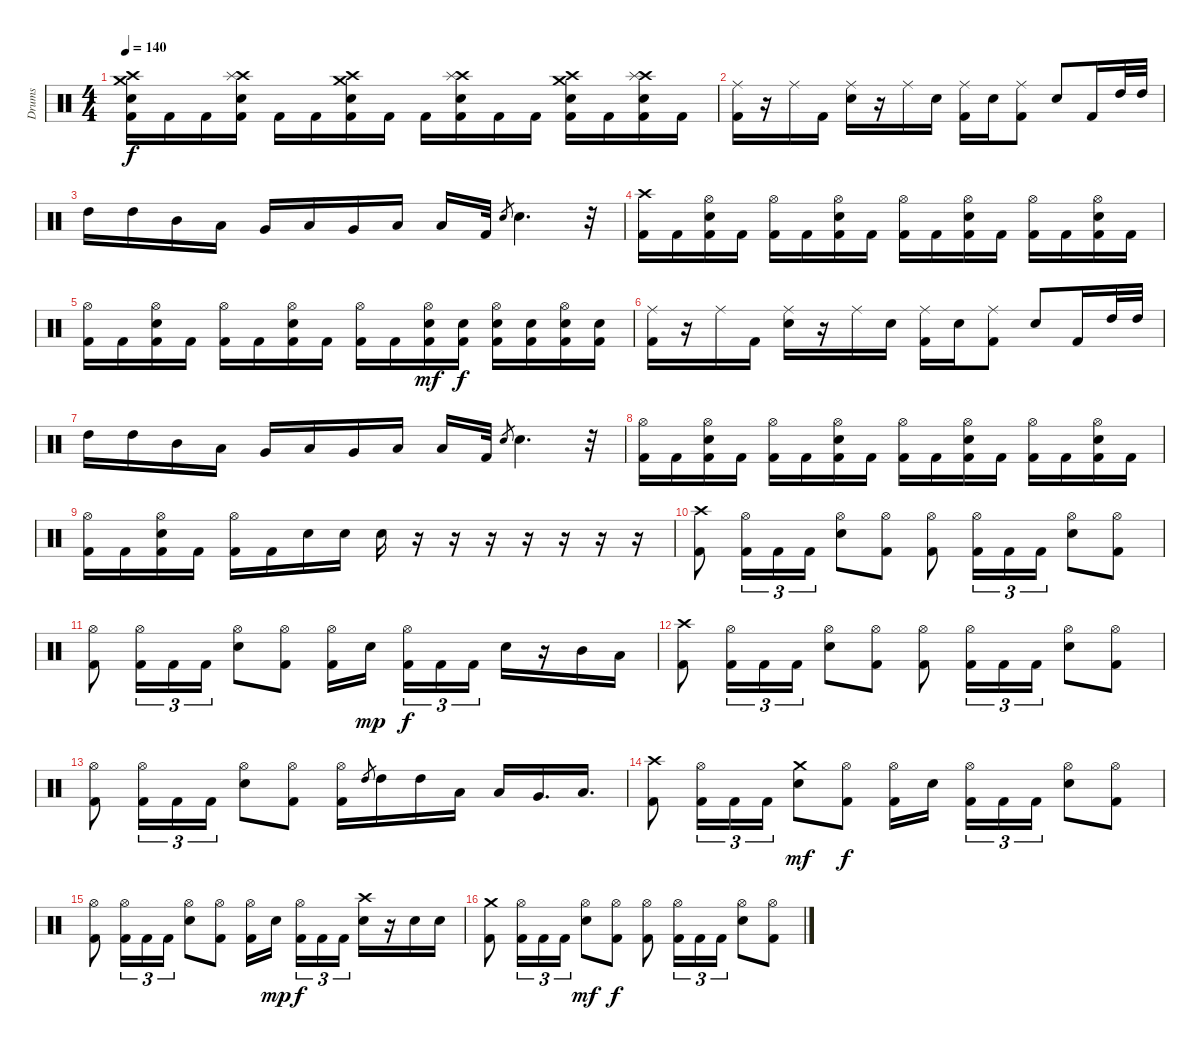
\track ("Drums" "Drums") {instrument percussion}
\staff {score}
\articulation defaults
\ts (4 4)
\tempo 140
\clef neutral
\ks c
("Crash high (hit)" "Crash medium (hit)" "Electric Snare (hit)" "Kick (hit) 2").16{dy f} "Kick (hit) 2".16 "Kick (hit) 2".16 ("Crash high (hit)" "Splash (hit)" "Electric Snare (hit)" "Kick (hit) 2").16 "Kick (hit) 2".16 "Kick (hit) 2".16 ("Crash high (hit)" "Crash medium (hit)" "Electric Snare (hit)" "Kick (hit) 2").16 "Kick (hit) 2".16 "Kick (hit) 2".16 ("Crash high (hit)" "Splash (hit)" "Electric Snare (hit)" "Kick (hit) 2").16 "Kick (hit) 2".16 "Kick (hit) 2".16 ("Crash high (hit)" "Crash medium (hit)" "Electric Snare (hit)" "Kick (hit) 2").16 "Kick (hit) 2".16 ("Crash high (hit)" "Splash (hit)" "Electric Snare (hit)" "Kick (hit) 2").16 "Kick (hit) 2".16 |
("Ride (middle)" "Kick (hit) 2").16 r.16 "Ride (middle)".16 "Kick (hit) 2".16 ("Ride (middle)" "Electric Snare (hit)").16 r.16 "Ride (middle)".16 "Electric Snare (hit)".16 ("Ride (middle)" "Kick (hit) 2").16 "Electric Snare (hit)".16 ("Ride (middle)" "Kick (hit) 2").8 "Electric Snare (hit)".8 "Kick (hit) 2".16 "High Tom (hit)".32 "High Tom (hit)".32 |
"High Tom (hit)".16 "High Tom (hit)".16 "Mid Tom (hit)".16 "Low Tom (hit)".16 "Very Low Tom (hit)".16 "Low Tom (hit)".16 "Very Low Tom (hit)".16 "Low Floor Tom (hit)".16 "Low Floor Tom (hit)".16 "Kick (hit) 2".32 "Electric Snare (hit)".8{gr} "Electric Snare (hit)".4{d} r.32 |
("Crash high (hit)" "Kick (hit) 2").16 "Kick (hit) 2".16 ("Hi-Hat (open)" "Electric Snare (hit)" "Kick (hit) 2").16 "Kick (hit) 2".16 ("Hi-Hat (open)" "Kick (hit) 2").16 "Kick (hit) 2".16 ("Hi-Hat (open)" "Electric Snare (hit)" "Kick (hit) 2").16 "Kick (hit) 2".16 ("Hi-Hat (open)" "Kick (hit) 2").16 "Kick (hit) 2".16 ("Hi-Hat (open)" "Electric Snare (hit)" "Kick (hit) 2").16 "Kick (hit) 2".16 ("Hi-Hat (open)" "Kick (hit) 2").16 "Kick (hit) 2".16 ("Hi-Hat (open)" "Electric Snare (hit)" "Kick (hit) 2").16 "Kick (hit) 2".16 |
("Hi-Hat (open)" "Kick (hit) 2").16 "Kick (hit) 2".16 ("Hi-Hat (open)" "Electric Snare (hit)" "Kick (hit) 2").16 "Kick (hit) 2".16 ("Hi-Hat (open)" "Kick (hit) 2").16 "Kick (hit) 2".16 ("Hi-Hat (open)" "Electric Snare (hit)" "Kick (hit) 2").16 "Kick (hit) 2".16 ("Hi-Hat (open)" "Kick (hit) 2").16 "Kick (hit) 2".16 ("Hi-Hat (open)" "Electric Snare (hit)" "Kick (hit) 2").16{dy mf} ("Electric Snare (hit)" "Kick (hit) 2").16{dy f} ("Hi-Hat (open)" "Electric Snare (hit)" "Kick (hit) 2").16 ("Electric Snare (hit)" "Kick (hit) 2").16 ("Hi-Hat (open)" "Electric Snare (hit)" "Kick (hit) 2").16 ("Electric Snare (hit)" "Kick (hit) 2").16 |
("Ride (middle)" "Kick (hit) 2").16 r.16 "Ride (middle)".16 "Kick (hit) 2".16 ("Ride (middle)" "Electric Snare (hit)").16 r.16 "Ride (middle)".16 "Electric Snare (hit)".16 ("Ride (middle)" "Kick (hit) 2").16 "Electric Snare (hit)".16 ("Ride (middle)" "Kick (hit) 2").8 "Electric Snare (hit)".8 "Kick (hit) 2".16 "High Tom (hit)".32 "High Tom (hit)".32 |
"High Tom (hit)".16 "High Tom (hit)".16 "Mid Tom (hit)".16 "Low Tom (hit)".16 "Very Low Tom (hit)".16 "Low Tom (hit)".16 "Very Low Tom (hit)".16 "Low Floor Tom (hit)".16 "Low Floor Tom (hit)".16 "Kick (hit) 2".32 "Electric Snare (hit)".8{gr} "Electric Snare (hit)".4{d} r.32 |
("Hi-Hat (open)" "Kick (hit) 2").16 "Kick (hit) 2".16 ("Hi-Hat (open)" "Electric Snare (hit)" "Kick (hit) 2").16 "Kick (hit) 2".16 ("Hi-Hat (open)" "Kick (hit) 2").16 "Kick (hit) 2".16 ("Hi-Hat (open)" "Electric Snare (hit)" "Kick (hit) 2").16 "Kick (hit) 2".16 ("Hi-Hat (open)" "Kick (hit) 2").16 "Kick (hit) 2".16 ("Hi-Hat (open)" "Electric Snare (hit)" "Kick (hit) 2").16 "Kick (hit) 2".16 ("Hi-Hat (open)" "Kick (hit) 2").16 "Kick (hit) 2".16 ("Hi-Hat (open)" "Electric Snare (hit)" "Kick (hit) 2").16 "Kick (hit) 2".16 |
("Hi-Hat (open)" "Kick (hit) 2").16 "Kick (hit) 2".16 ("Hi-Hat (open)" "Electric Snare (hit)" "Kick (hit) 2").16 "Kick (hit) 2".16 ("Hi-Hat (open)" "Kick (hit) 2").16 "Kick (hit) 2".16 "Electric Snare (hit)".16 "Electric Snare (hit)".16 "Electric Snare (hit)".16 r.16 r.16 r.16 r.16 r.16 r.16 r.16 |
("Crash high (hit)" "Kick (hit) 2").8 ("Hi-Hat (open)" "Kick (hit) 2").16{tu (3 2)} "Kick (hit) 2".16{tu (3 2)} "Kick (hit) 2".16{tu (3 2)} ("Hi-Hat (open)" "Electric Snare (hit)").8 ("Hi-Hat (open)" "Kick (hit) 2").8 ("Hi-Hat (open)" "Kick (hit) 2").8 ("Hi-Hat (open)" "Kick (hit) 2").16{tu (3 2)} "Kick (hit) 2".16{tu (3 2)} "Kick (hit) 2".16{tu (3 2)} ("Hi-Hat (open)" "Electric Snare (hit)").8 ("Hi-Hat (open)" "Kick (hit) 2").8 |
("Hi-Hat (open)" "Kick (hit) 2").8 ("Hi-Hat (open)" "Kick (hit) 2").16{tu (3 2)} "Kick (hit) 2".16{tu (3 2)} "Kick (hit) 2".16{tu (3 2)} ("Hi-Hat (open)" "Electric Snare (hit)").8 ("Hi-Hat (open)" "Kick (hit) 2").8 ("Hi-Hat (open)" "Kick (hit) 2").16 "Electric Snare (hit)".16{dy mp} ("Hi-Hat (open)" "Kick (hit) 2").16{tu (3 2) dy f} "Kick (hit) 2".16{tu (3 2)} "Kick (hit) 2".16{tu (3 2)} "Electric Snare (hit)".16 r.16 "Mid Tom (hit)".16 "Low Tom (hit)".16 |
("Crash high (hit)" "Kick (hit) 2").8 ("Hi-Hat (open)" "Kick (hit) 2").16{tu (3 2)} "Kick (hit) 2".16{tu (3 2)} "Kick (hit) 2".16{tu (3 2)} ("Hi-Hat (open)" "Electric Snare (hit)").8 ("Hi-Hat (open)" "Kick (hit) 2").8 ("Hi-Hat (open)" "Kick (hit) 2").8 ("Hi-Hat (open)" "Kick (hit) 2").16{tu (3 2)} "Kick (hit) 2".16{tu (3 2)} "Kick (hit) 2".16{tu (3 2)} ("Hi-Hat (open)" "Electric Snare (hit)").8 ("Hi-Hat (open)" "Kick (hit) 2").8 |
("Hi-Hat (open)" "Kick (hit) 2").8 ("Hi-Hat (open)" "Kick (hit) 2").16{tu (3 2)} "Kick (hit) 2".16{tu (3 2)} "Kick (hit) 2".16{tu (3 2)} ("Hi-Hat (open)" "Electric Snare (hit)").8 ("Hi-Hat (open)" "Kick (hit) 2").8 ("Hi-Hat (open)" "Kick (hit) 2").16 "High Tom (hit)".8{gr} "High Tom (hit)".16 "High Tom (hit)".16 "Low Tom (hit)".16 "Low Tom (hit)".16 "Very Low Tom (hit)".16{d} "Low Floor Tom (hit)".16{d} |
("Crash high (hit)" "Kick (hit) 2").8 ("Hi-Hat (open)" "Kick (hit) 2").16{tu (3 2)} "Kick (hit) 2".16{tu (3 2)} "Kick (hit) 2".16{tu (3 2)} ("Crash medium (hit)" "Electric Snare (hit)").8{dy mf} ("Hi-Hat (open)" "Kick (hit) 2").8{dy f} ("Hi-Hat (open)" "Kick (hit) 2").16 "Electric Snare (hit)".16 ("Hi-Hat (open)" "Kick (hit) 2").16{tu (3 2)} "Kick (hit) 2".16{tu (3 2)} "Kick (hit) 2".16{tu (3 2)} ("Hi-Hat (open)" "Electric Snare (hit)").8 ("Hi-Hat (open)" "Kick (hit) 2").8 |
("Hi-Hat (open)" "Kick (hit) 2").8 ("Hi-Hat (open)" "Kick (hit) 2").16{tu (3 2)} "Kick (hit) 2".16{tu (3 2)} "Kick (hit) 2".16{tu (3 2)} ("Hi-Hat (open)" "Electric Snare (hit)").8 ("Hi-Hat (open)" "Kick (hit) 2").8 ("Hi-Hat (open)" "Kick (hit) 2").16 "Electric Snare (hit)".16{dy mp} ("Hi-Hat (open)" "Kick (hit) 2").16{tu (3 2) dy f} "Kick (hit) 2".16{tu (3 2)} "Kick (hit) 2".16{tu (3 2)} ("Crash high (hit)" "Electric Snare (hit)").16 r.16 "Electric Snare (hit)".16 "Electric Snare (hit)".16 |
("Crash medium (hit)" "Kick (hit) 2").8 ("Hi-Hat (open)" "Kick (hit) 2").16{tu (3 2)} "Kick (hit) 2".16{tu (3 2)} "Kick (hit) 2".16{tu (3 2)} ("Hi-Hat (open)" "Electric Snare (hit)").8{dy mf} ("Hi-Hat (open)" "Kick (hit) 2").8{dy f} ("Hi-Hat (open)" "Kick (hit) 2").8 ("Hi-Hat (open)" "Kick (hit) 2").16{tu (3 2)} "Kick (hit) 2".16{tu (3 2)} "Kick (hit) 2".16{tu (3 2)} ("Hi-Hat (open)" "Electric Snare (hit)").8 ("Hi-Hat (open)" "Kick (hit) 2").8
